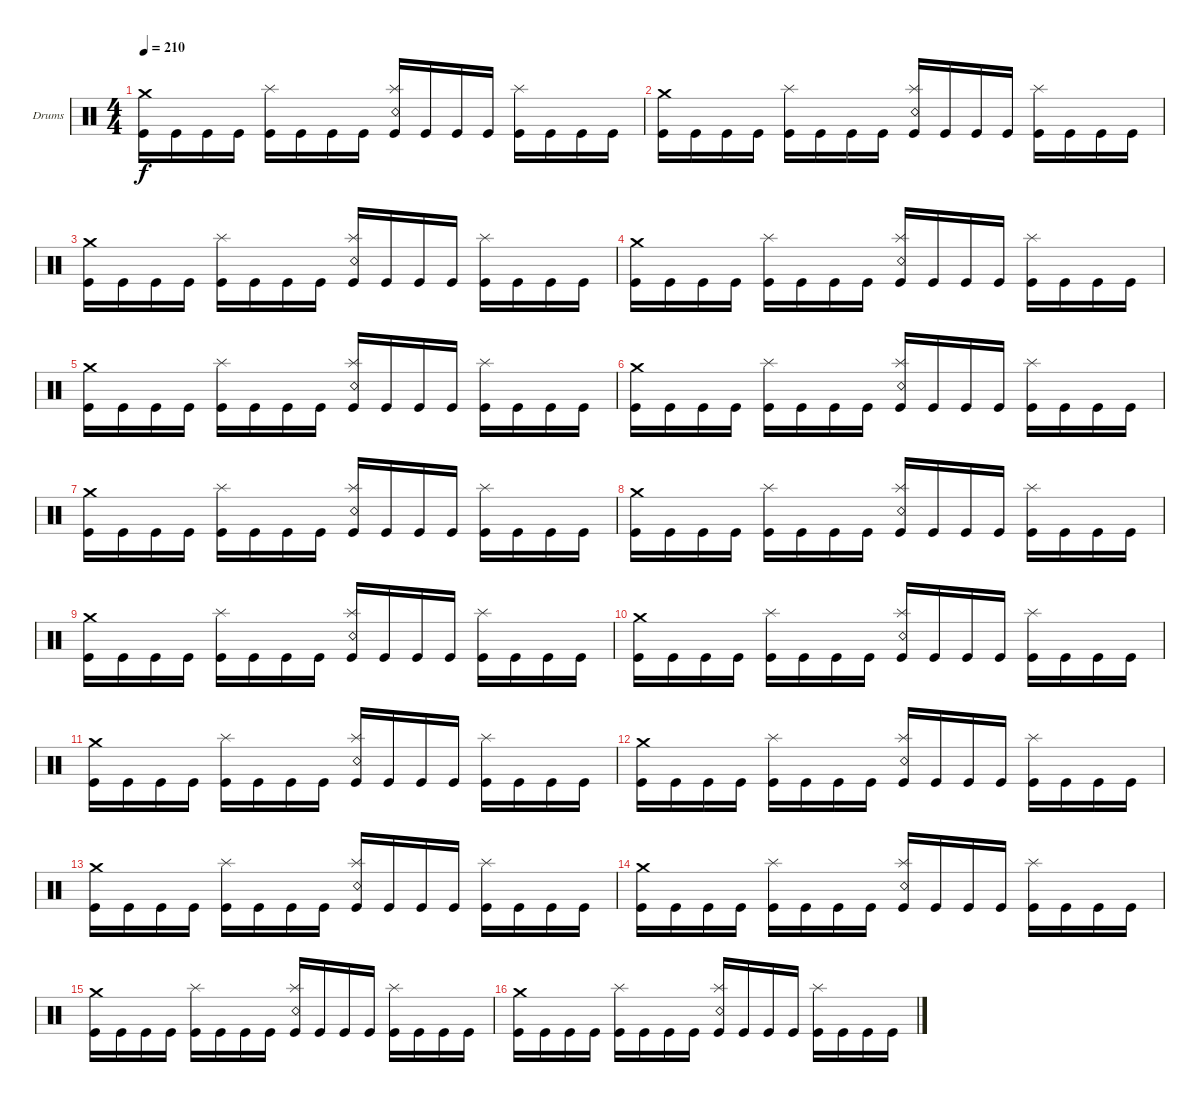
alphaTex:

\defaultSystemsLayout 4
\bracketExtendMode groupsimilarinstruments
\firstSystemTrackNameOrientation horizontal
\otherSystemsTrackNameOrientation horizontal
\track ("Drums" "Drums") {instrument percussion}
\staff {score}
\articulation defaults
\ts (4 4)
\tempo 210
\clef neutral
\ks c
("Kick (hit)" "Crash medium (hit)").16{dy f} "Kick (hit)".16 "Kick (hit)".16 "Kick (hit)".16 ("Kick (hit)" "Splash (hit)").16 "Kick (hit)".16 "Kick (hit)".16 "Kick (hit)".16 ("Kick (hit)" "Snare (rim shot)" "Splash (hit)").16 "Kick (hit)".16 "Kick (hit)".16 "Kick (hit)".16 ("Kick (hit)" "Splash (hit)").16 "Kick (hit)".16 "Kick (hit)".16 "Kick (hit)".16 |
("Kick (hit)" "Crash medium (hit)").16 "Kick (hit)".16 "Kick (hit)".16 "Kick (hit)".16 ("Kick (hit)" "Splash (hit)").16 "Kick (hit)".16 "Kick (hit)".16 "Kick (hit)".16 ("Kick (hit)" "Snare (rim shot)" "Splash (hit)").16 "Kick (hit)".16 "Kick (hit)".16 "Kick (hit)".16 ("Kick (hit)" "Splash (hit)").16 "Kick (hit)".16 "Kick (hit)".16 "Kick (hit)".16 |
("Kick (hit)" "Crash medium (hit)").16 "Kick (hit)".16 "Kick (hit)".16 "Kick (hit)".16 ("Kick (hit)" "Splash (hit)").16 "Kick (hit)".16 "Kick (hit)".16 "Kick (hit)".16 ("Kick (hit)" "Snare (rim shot)" "Splash (hit)").16 "Kick (hit)".16 "Kick (hit)".16 "Kick (hit)".16 ("Kick (hit)" "Splash (hit)").16 "Kick (hit)".16 "Kick (hit)".16 "Kick (hit)".16 |
("Kick (hit)" "Crash medium (hit)").16 "Kick (hit)".16 "Kick (hit)".16 "Kick (hit)".16 ("Kick (hit)" "Splash (hit)").16 "Kick (hit)".16 "Kick (hit)".16 "Kick (hit)".16 ("Kick (hit)" "Snare (rim shot)" "Splash (hit)").16 "Kick (hit)".16 "Kick (hit)".16 "Kick (hit)".16 ("Kick (hit)" "Splash (hit)").16 "Kick (hit)".16 "Kick (hit)".16 "Kick (hit)".16 |
("Kick (hit)" "Crash medium (hit)").16 "Kick (hit)".16 "Kick (hit)".16 "Kick (hit)".16 ("Kick (hit)" "Splash (hit)").16 "Kick (hit)".16 "Kick (hit)".16 "Kick (hit)".16 ("Kick (hit)" "Snare (rim shot)" "Splash (hit)").16 "Kick (hit)".16 "Kick (hit)".16 "Kick (hit)".16 ("Kick (hit)" "Splash (hit)").16 "Kick (hit)".16 "Kick (hit)".16 "Kick (hit)".16 |
("Kick (hit)" "Crash medium (hit)").16 "Kick (hit)".16 "Kick (hit)".16 "Kick (hit)".16 ("Kick (hit)" "Splash (hit)").16 "Kick (hit)".16 "Kick (hit)".16 "Kick (hit)".16 ("Kick (hit)" "Snare (rim shot)" "Splash (hit)").16 "Kick (hit)".16 "Kick (hit)".16 "Kick (hit)".16 ("Kick (hit)" "Splash (hit)").16 "Kick (hit)".16 "Kick (hit)".16 "Kick (hit)".16 |
("Kick (hit)" "Crash medium (hit)").16 "Kick (hit)".16 "Kick (hit)".16 "Kick (hit)".16 ("Kick (hit)" "Splash (hit)").16 "Kick (hit)".16 "Kick (hit)".16 "Kick (hit)".16 ("Kick (hit)" "Snare (rim shot)" "Splash (hit)").16 "Kick (hit)".16 "Kick (hit)".16 "Kick (hit)".16 ("Kick (hit)" "Splash (hit)").16 "Kick (hit)".16 "Kick (hit)".16 "Kick (hit)".16 |
("Kick (hit)" "Crash medium (hit)").16 "Kick (hit)".16 "Kick (hit)".16 "Kick (hit)".16 ("Kick (hit)" "Splash (hit)").16 "Kick (hit)".16 "Kick (hit)".16 "Kick (hit)".16 ("Kick (hit)" "Snare (rim shot)" "Splash (hit)").16 "Kick (hit)".16 "Kick (hit)".16 "Kick (hit)".16 ("Kick (hit)" "Splash (hit)").16 "Kick (hit)".16 "Kick (hit)".16 "Kick (hit)".16 |
("Kick (hit)" "Crash medium (hit)").16 "Kick (hit)".16 "Kick (hit)".16 "Kick (hit)".16 ("Kick (hit)" "Splash (hit)").16 "Kick (hit)".16 "Kick (hit)".16 "Kick (hit)".16 ("Kick (hit)" "Snare (rim shot)" "Splash (hit)").16 "Kick (hit)".16 "Kick (hit)".16 "Kick (hit)".16 ("Kick (hit)" "Splash (hit)").16 "Kick (hit)".16 "Kick (hit)".16 "Kick (hit)".16 |
("Kick (hit)" "Crash medium (hit)").16 "Kick (hit)".16 "Kick (hit)".16 "Kick (hit)".16 ("Kick (hit)" "Splash (hit)").16 "Kick (hit)".16 "Kick (hit)".16 "Kick (hit)".16 ("Kick (hit)" "Snare (rim shot)" "Splash (hit)").16 "Kick (hit)".16 "Kick (hit)".16 "Kick (hit)".16 ("Kick (hit)" "Splash (hit)").16 "Kick (hit)".16 "Kick (hit)".16 "Kick (hit)".16 |
("Kick (hit)" "Crash medium (hit)").16 "Kick (hit)".16 "Kick (hit)".16 "Kick (hit)".16 ("Kick (hit)" "Splash (hit)").16 "Kick (hit)".16 "Kick (hit)".16 "Kick (hit)".16 ("Kick (hit)" "Snare (rim shot)" "Splash (hit)").16 "Kick (hit)".16 "Kick (hit)".16 "Kick (hit)".16 ("Kick (hit)" "Splash (hit)").16 "Kick (hit)".16 "Kick (hit)".16 "Kick (hit)".16 |
("Kick (hit)" "Crash medium (hit)").16 "Kick (hit)".16 "Kick (hit)".16 "Kick (hit)".16 ("Kick (hit)" "Splash (hit)").16 "Kick (hit)".16 "Kick (hit)".16 "Kick (hit)".16 ("Kick (hit)" "Snare (rim shot)" "Splash (hit)").16 "Kick (hit)".16 "Kick (hit)".16 "Kick (hit)".16 ("Kick (hit)" "Splash (hit)").16 "Kick (hit)".16 "Kick (hit)".16 "Kick (hit)".16 |
("Kick (hit)" "Crash medium (hit)").16 "Kick (hit)".16 "Kick (hit)".16 "Kick (hit)".16 ("Kick (hit)" "Splash (hit)").16 "Kick (hit)".16 "Kick (hit)".16 "Kick (hit)".16 ("Kick (hit)" "Snare (rim shot)" "Splash (hit)").16 "Kick (hit)".16 "Kick (hit)".16 "Kick (hit)".16 ("Kick (hit)" "Splash (hit)").16 "Kick (hit)".16 "Kick (hit)".16 "Kick (hit)".16 |
("Kick (hit)" "Crash medium (hit)").16 "Kick (hit)".16 "Kick (hit)".16 "Kick (hit)".16 ("Kick (hit)" "Splash (hit)").16 "Kick (hit)".16 "Kick (hit)".16 "Kick (hit)".16 ("Kick (hit)" "Snare (rim shot)" "Splash (hit)").16 "Kick (hit)".16 "Kick (hit)".16 "Kick (hit)".16 ("Kick (hit)" "Splash (hit)").16 "Kick (hit)".16 "Kick (hit)".16 "Kick (hit)".16 |
("Kick (hit)" "Crash medium (hit)").16 "Kick (hit)".16 "Kick (hit)".16 "Kick (hit)".16 ("Kick (hit)" "Splash (hit)").16 "Kick (hit)".16 "Kick (hit)".16 "Kick (hit)".16 ("Kick (hit)" "Snare (rim shot)" "Splash (hit)").16 "Kick (hit)".16 "Kick (hit)".16 "Kick (hit)".16 ("Kick (hit)" "Splash (hit)").16 "Kick (hit)".16 "Kick (hit)".16 "Kick (hit)".16 |
("Kick (hit)" "Crash medium (hit)").16 "Kick (hit)".16 "Kick (hit)".16 "Kick (hit)".16 ("Kick (hit)" "Splash (hit)").16 "Kick (hit)".16 "Kick (hit)".16 "Kick (hit)".16 ("Kick (hit)" "Snare (rim shot)" "Splash (hit)").16 "Kick (hit)".16 "Kick (hit)".16 "Kick (hit)".16 ("Kick (hit)" "Splash (hit)").16 "Kick (hit)".16 "Kick (hit)".16 "Kick (hit)".16
